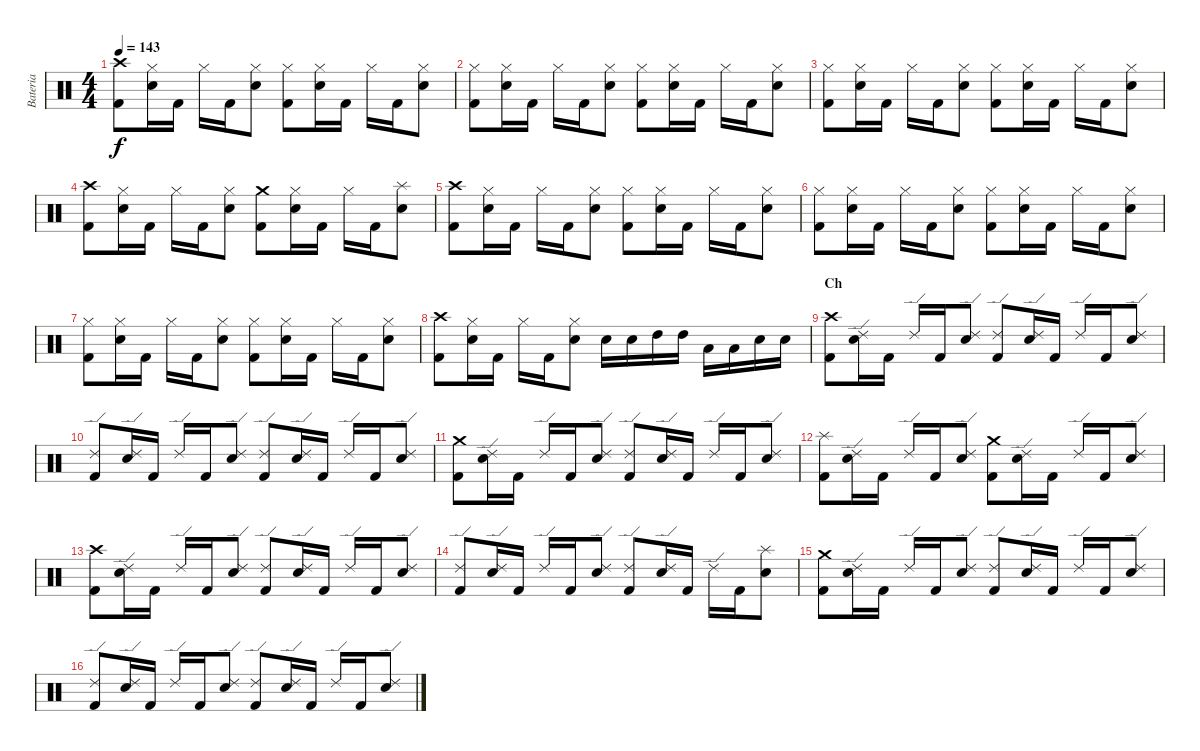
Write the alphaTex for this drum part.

\track ("Bateria" "Bateria") {instrument percussion}
\staff {score}
\articulation defaults
\ts (4 4)
\tempo 143
\clef neutral
\ks c
("Crash high (hit)" "Kick (hit) 2").8{dy f} ("Hi-Hat (closed)" "Snare (hit) 2").16 "Kick (hit) 2".16 "Hi-Hat (closed)".16 "Kick (hit) 2".16 ("Hi-Hat (closed)" "Snare (hit) 2").8 ("Hi-Hat (closed)" "Kick (hit) 2").8 ("Hi-Hat (closed)" "Snare (hit) 2").16 "Kick (hit) 2".16 "Hi-Hat (closed)".16 "Kick (hit) 2".16 ("Hi-Hat (closed)" "Snare (hit) 2").8 |
("Hi-Hat (closed)" "Kick (hit) 2").8 ("Hi-Hat (closed)" "Snare (hit) 2").16 "Kick (hit) 2".16 "Hi-Hat (closed)".16 "Kick (hit) 2".16 ("Hi-Hat (closed)" "Snare (hit) 2").8 ("Hi-Hat (closed)" "Kick (hit) 2").8 ("Hi-Hat (closed)" "Snare (hit) 2").16 "Kick (hit) 2".16 "Hi-Hat (closed)".16 "Kick (hit) 2".16 ("Hi-Hat (closed)" "Snare (hit) 2").8 |
("Hi-Hat (closed)" "Kick (hit) 2").8 ("Hi-Hat (closed)" "Snare (hit) 2").16 "Kick (hit) 2".16 "Hi-Hat (closed)".16 "Kick (hit) 2".16 ("Hi-Hat (closed)" "Snare (hit) 2").8 ("Hi-Hat (closed)" "Kick (hit) 2").8 ("Hi-Hat (closed)" "Snare (hit) 2").16 "Kick (hit) 2".16 "Hi-Hat (closed)".16 "Kick (hit) 2".16 ("Hi-Hat (closed)" "Snare (hit) 2").8 |
("Crash high (hit)" "Kick (hit) 2").8 ("Hi-Hat (closed)" "Snare (hit) 2").16 "Kick (hit) 2".16 "Hi-Hat (closed)".16 "Kick (hit) 2".16 ("Hi-Hat (closed)" "Snare (hit) 2").8 ("Crash medium (hit)" "Kick (hit) 2").8 ("Hi-Hat (closed)" "Snare (hit) 2").16 "Kick (hit) 2".16 "Hi-Hat (closed)".16 "Kick (hit) 2".16 ("Splash (hit)" "Snare (hit) 2").8 |
("Crash high (hit)" "Kick (hit) 2").8 ("Hi-Hat (closed)" "Snare (hit) 2").16 "Kick (hit) 2".16 "Hi-Hat (closed)".16 "Kick (hit) 2".16 ("Hi-Hat (closed)" "Snare (hit) 2").8 ("Hi-Hat (closed)" "Kick (hit) 2").8 ("Hi-Hat (closed)" "Snare (hit) 2").16 "Kick (hit) 2".16 "Hi-Hat (closed)".16 "Kick (hit) 2".16 ("Hi-Hat (closed)" "Snare (hit) 2").8 |
("Hi-Hat (closed)" "Kick (hit) 2").8 ("Hi-Hat (closed)" "Snare (hit) 2").16 "Kick (hit) 2".16 "Hi-Hat (closed)".16 "Kick (hit) 2".16 ("Hi-Hat (closed)" "Snare (hit) 2").8 ("Hi-Hat (closed)" "Kick (hit) 2").8 ("Hi-Hat (closed)" "Snare (hit) 2").16 "Kick (hit) 2".16 "Hi-Hat (closed)".16 "Kick (hit) 2".16 ("Hi-Hat (closed)" "Snare (hit) 2").8 |
("Hi-Hat (closed)" "Kick (hit) 2").8 ("Hi-Hat (closed)" "Snare (hit) 2").16 "Kick (hit) 2".16 "Hi-Hat (closed)".16 "Kick (hit) 2".16 ("Hi-Hat (closed)" "Snare (hit) 2").8 ("Hi-Hat (closed)" "Kick (hit) 2").8 ("Hi-Hat (closed)" "Snare (hit) 2").16 "Kick (hit) 2".16 "Hi-Hat (closed)".16 "Kick (hit) 2".16 ("Hi-Hat (closed)" "Snare (hit) 2").8 |
("Crash high (hit)" "Kick (hit) 2").8 ("Hi-Hat (closed)" "Snare (hit) 2").16 "Kick (hit) 2".16 "Hi-Hat (closed)".16 "Kick (hit) 2".16 ("Hi-Hat (closed)" "Snare (hit) 2").8 "Snare (hit) 2".16 "Snare (hit) 2".16 "High Tom (hit)".16 "High Tom (hit)".16 "Low Tom (hit)".16 "Low Tom (hit)".16 "Snare (hit) 2".16 "Snare (hit) 2".16 |
\section ("" "Ch")
("Crash high (hit)" "Kick (hit) 2").8 ("Ride (edge) 2" "Snare (hit) 2").16 "Kick (hit) 2".16 "Ride (edge) 2".16 "Kick (hit) 2".16 ("Ride (edge) 2" "Snare (hit) 2").8 ("Ride (edge) 2" "Kick (hit) 2").8 ("Ride (edge) 2" "Snare (hit) 2").16 "Kick (hit) 2".16 "Ride (edge) 2".16 "Kick (hit) 2".16 ("Ride (edge) 2" "Snare (hit) 2").8 |
("Ride (edge) 2" "Kick (hit) 2").8 ("Ride (edge) 2" "Snare (hit) 2").16 "Kick (hit) 2".16 "Ride (edge) 2".16 "Kick (hit) 2".16 ("Ride (edge) 2" "Snare (hit) 2").8 ("Ride (edge) 2" "Kick (hit) 2").8 ("Ride (edge) 2" "Snare (hit) 2").16 "Kick (hit) 2".16 "Ride (edge) 2".16 "Kick (hit) 2".16 ("Ride (edge) 2" "Snare (hit) 2").8 |
("Crash medium (hit)" "Kick (hit) 2").8 ("Ride (edge) 2" "Snare (hit) 2").16 "Kick (hit) 2".16 "Ride (edge) 2".16 "Kick (hit) 2".16 ("Ride (edge) 2" "Snare (hit) 2").8 ("Ride (edge) 2" "Kick (hit) 2").8 ("Ride (edge) 2" "Snare (hit) 2").16 "Kick (hit) 2".16 "Ride (edge) 2".16 "Kick (hit) 2".16 ("Ride (edge) 2" "Snare (hit) 2").8 |
("Splash (hit)" "Kick (hit) 2").8 ("Ride (edge) 2" "Snare (hit) 2").16 "Kick (hit) 2".16 "Ride (edge) 2".16 "Kick (hit) 2".16 ("Ride (edge) 2" "Snare (hit) 2").8 ("Crash medium (hit)" "Kick (hit) 2").8 ("Ride (edge) 2" "Snare (hit) 2").16 "Kick (hit) 2".16 "Ride (edge) 2".16 "Kick (hit) 2".16 ("Ride (edge) 2" "Snare (hit) 2").8 |
("Crash high (hit)" "Kick (hit) 2").8 ("Ride (edge) 2" "Snare (hit) 2").16 "Kick (hit) 2".16 "Ride (edge) 2".16 "Kick (hit) 2".16 ("Ride (edge) 2" "Snare (hit) 2").8 ("Ride (edge) 2" "Kick (hit) 2").8 ("Ride (edge) 2" "Snare (hit) 2").16 "Kick (hit) 2".16 "Ride (edge) 2".16 "Kick (hit) 2".16 ("Ride (edge) 2" "Snare (hit) 2").8 |
("Ride (edge) 2" "Kick (hit) 2").8 ("Ride (edge) 2" "Snare (hit) 2").16 "Kick (hit) 2".16 "Ride (edge) 2".16 "Kick (hit) 2".16 ("Ride (edge) 2" "Snare (hit) 2").8 ("Ride (edge) 2" "Kick (hit) 2").8 ("Ride (edge) 2" "Snare (hit) 2").16 "Kick (hit) 2".16 "Ride (edge) 2".16 "Kick (hit) 2".16 ("Splash (hit)" "Snare (hit) 2").8 |
("Crash medium (hit)" "Kick (hit) 2").8 ("Ride (edge) 2" "Snare (hit) 2").16 "Kick (hit) 2".16 "Ride (edge) 2".16 "Kick (hit) 2".16 ("Ride (edge) 2" "Snare (hit) 2").8 ("Ride (edge) 2" "Kick (hit) 2").8 ("Ride (edge) 2" "Snare (hit) 2").16 "Kick (hit) 2".16 "Ride (edge) 2".16 "Kick (hit) 2".16 ("Ride (edge) 2" "Snare (hit) 2").8 |
("Ride (edge) 2" "Kick (hit) 2").8 ("Ride (edge) 2" "Snare (hit) 2").16 "Kick (hit) 2".16 "Ride (edge) 2".16 "Kick (hit) 2".16 ("Ride (edge) 2" "Snare (hit) 2").8 ("Ride (edge) 2" "Kick (hit) 2").8 ("Ride (edge) 2" "Snare (hit) 2").16 "Kick (hit) 2".16 "Ride (edge) 2".16 "Kick (hit) 2".16 ("Ride (edge) 2" "Snare (hit) 2").8
